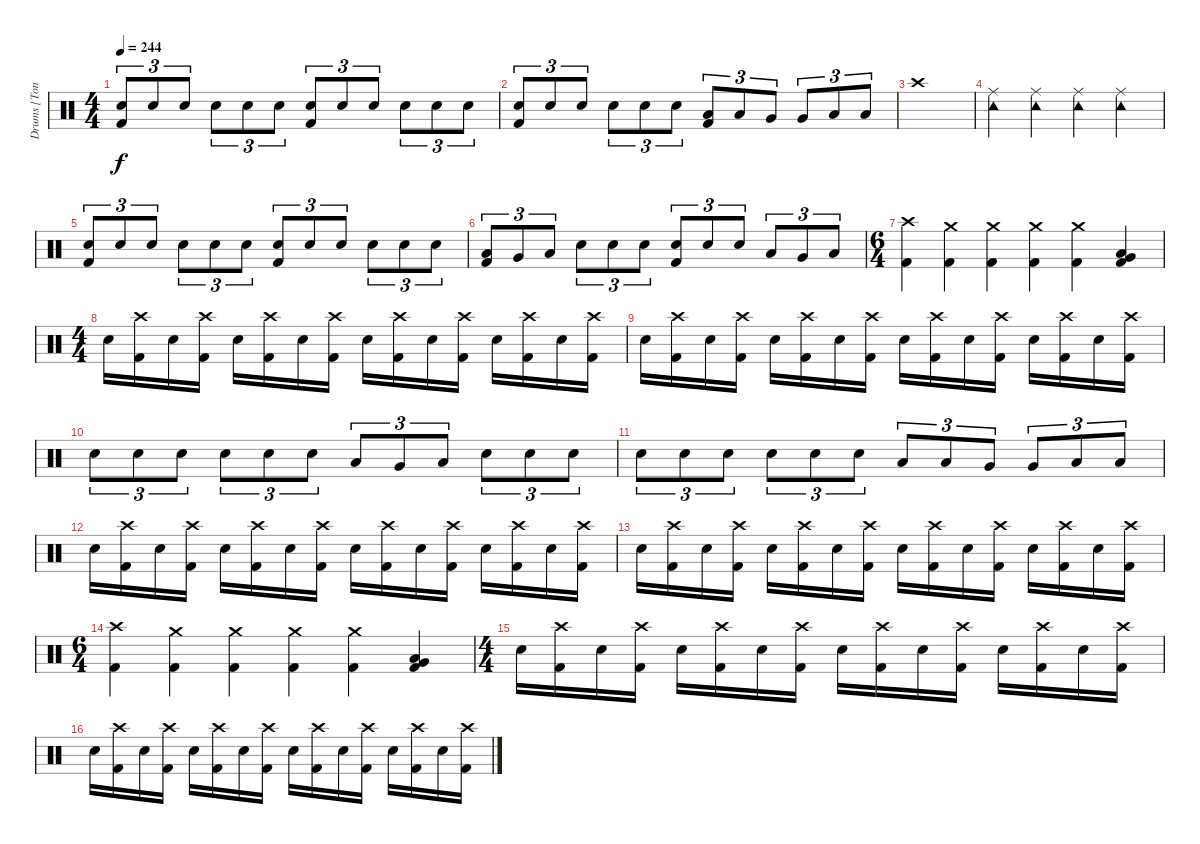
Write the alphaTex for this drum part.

\track ("Drums [Tony Laureano]" "Drums [Ton") {instrument percussion}
\staff {score}
\articulation defaults
\ts (4 4)
\tempo 244
\clef neutral
\ks c
("Electric Snare (hit)" "Kick (hit) 2").8{tu (3 2) dy f} "Electric Snare (hit)".8{tu (3 2)} "Electric Snare (hit)".8{tu (3 2)} "Electric Snare (hit)".8{tu (3 2)} "Electric Snare (hit)".8{tu (3 2)} "Electric Snare (hit)".8{tu (3 2)} ("Electric Snare (hit)" "Kick (hit) 2").8{tu (3 2)} "Electric Snare (hit)".8{tu (3 2)} "Electric Snare (hit)".8{tu (3 2)} "Electric Snare (hit)".8{tu (3 2)} "Electric Snare (hit)".8{tu (3 2)} "Electric Snare (hit)".8{tu (3 2)} |
("Electric Snare (hit)" "Kick (hit) 2").8{tu (3 2)} "Electric Snare (hit)".8{tu (3 2)} "Electric Snare (hit)".8{tu (3 2)} "Electric Snare (hit)".8{tu (3 2)} "Electric Snare (hit)".8{tu (3 2)} "Electric Snare (hit)".8{tu (3 2)} ("Low Tom (hit)" "Kick (hit) 2").8{tu (3 2)} "Low Tom (hit)".8{tu (3 2)} "Very Low Tom (hit)".8{tu (3 2)} "Very Low Tom (hit)".8{tu (3 2)} "Low Floor Tom (hit)".8{tu (3 2)} "Low Floor Tom (hit)".8{tu (3 2)} |
"Crash high (hit)".1 |
("Tambourine (hit)" "Ride (middle)").4 ("Tambourine (hit)" "Ride (middle)").4 ("Tambourine (hit)" "Ride (middle)").4 ("Tambourine (hit)" "Ride (middle)").4 |
("Electric Snare (hit)" "Kick (hit) 2").8{tu (3 2)} "Electric Snare (hit)".8{tu (3 2)} "Electric Snare (hit)".8{tu (3 2)} "Electric Snare (hit)".8{tu (3 2)} "Electric Snare (hit)".8{tu (3 2)} "Electric Snare (hit)".8{tu (3 2)} ("Electric Snare (hit)" "Kick (hit) 2").8{tu (3 2)} "Electric Snare (hit)".8{tu (3 2)} "Electric Snare (hit)".8{tu (3 2)} "Electric Snare (hit)".8{tu (3 2)} "Electric Snare (hit)".8{tu (3 2)} "Electric Snare (hit)".8{tu (3 2)} |
("Low Tom (hit)" "Kick (hit) 2").8{tu (3 2)} "Very Low Tom (hit)".8{tu (3 2)} "Low Floor Tom (hit)".8{tu (3 2)} "Electric Snare (hit)".8{tu (3 2)} "Electric Snare (hit)".8{tu (3 2)} "Electric Snare (hit)".8{tu (3 2)} ("Electric Snare (hit)" "Kick (hit) 2").8{tu (3 2)} "Electric Snare (hit)".8{tu (3 2)} "Electric Snare (hit)".8{tu (3 2)} "Low Tom (hit)".8{tu (3 2)} "Very Low Tom (hit)".8{tu (3 2)} "Low Floor Tom (hit)".8{tu (3 2)} |
\ts (6 4)
("Crash high (hit)" "Kick (hit) 2").4 ("Crash medium (hit)" "Kick (hit) 2").4 ("Crash medium (hit)" "Kick (hit) 2").4 ("Crash medium (hit)" "Kick (hit) 2").4 ("Crash medium (hit)" "Kick (hit) 2").4 ("Very Low Tom (hit)" "Low Floor Tom (hit)" "Kick (hit) 2").4 |
\ts (4 4)
"Electric Snare (hit)".16 ("Crash high (hit)" "Kick (hit) 2").16 "Electric Snare (hit)".16 ("Crash high (hit)" "Kick (hit) 2").16 "Electric Snare (hit)".16 ("Crash high (hit)" "Kick (hit) 2").16 "Electric Snare (hit)".16 ("Crash high (hit)" "Kick (hit) 2").16 "Electric Snare (hit)".16 ("Crash high (hit)" "Kick (hit) 2").16 "Electric Snare (hit)".16 ("Crash high (hit)" "Kick (hit) 2").16 "Electric Snare (hit)".16 ("Crash high (hit)" "Kick (hit) 2").16 "Electric Snare (hit)".16 ("Crash high (hit)" "Kick (hit) 2").16 |
"Electric Snare (hit)".16 ("Crash high (hit)" "Kick (hit) 2").16 "Electric Snare (hit)".16 ("Crash high (hit)" "Kick (hit) 2").16 "Electric Snare (hit)".16 ("Crash high (hit)" "Kick (hit) 2").16 "Electric Snare (hit)".16 ("Crash high (hit)" "Kick (hit) 2").16 "Electric Snare (hit)".16 ("Crash high (hit)" "Kick (hit) 2").16 "Electric Snare (hit)".16 ("Crash high (hit)" "Kick (hit) 2").16 "Electric Snare (hit)".16 ("Crash high (hit)" "Kick (hit) 2").16 "Electric Snare (hit)".16 ("Crash high (hit)" "Kick (hit) 2").16 |
"Electric Snare (hit)".8{tu (3 2)} "Electric Snare (hit)".8{tu (3 2)} "Electric Snare (hit)".8{tu (3 2)} "Electric Snare (hit)".8{tu (3 2)} "Electric Snare (hit)".8{tu (3 2)} "Electric Snare (hit)".8{tu (3 2)} "Low Tom (hit)".8{tu (3 2)} "Very Low Tom (hit)".8{tu (3 2)} "Low Floor Tom (hit)".8{tu (3 2)} "Electric Snare (hit)".8{tu (3 2)} "Electric Snare (hit)".8{tu (3 2)} "Electric Snare (hit)".8{tu (3 2)} |
"Electric Snare (hit)".8{tu (3 2)} "Electric Snare (hit)".8{tu (3 2)} "Electric Snare (hit)".8{tu (3 2)} "Electric Snare (hit)".8{tu (3 2)} "Electric Snare (hit)".8{tu (3 2)} "Electric Snare (hit)".8{tu (3 2)} "Low Tom (hit)".8{tu (3 2)} "Low Tom (hit)".8{tu (3 2)} "Very Low Tom (hit)".8{tu (3 2)} "Very Low Tom (hit)".8{tu (3 2)} "Low Floor Tom (hit)".8{tu (3 2)} "Low Floor Tom (hit)".8{tu (3 2)} |
"Electric Snare (hit)".16 ("Crash high (hit)" "Kick (hit) 2").16 "Electric Snare (hit)".16 ("Crash high (hit)" "Kick (hit) 2").16 "Electric Snare (hit)".16 ("Crash high (hit)" "Kick (hit) 2").16 "Electric Snare (hit)".16 ("Crash high (hit)" "Kick (hit) 2").16 "Electric Snare (hit)".16 ("Crash high (hit)" "Kick (hit) 2").16 "Electric Snare (hit)".16 ("Crash high (hit)" "Kick (hit) 2").16 "Electric Snare (hit)".16 ("Crash high (hit)" "Kick (hit) 2").16 "Electric Snare (hit)".16 ("Crash high (hit)" "Kick (hit) 2").16 |
"Electric Snare (hit)".16 ("Crash high (hit)" "Kick (hit) 2").16 "Electric Snare (hit)".16 ("Crash high (hit)" "Kick (hit) 2").16 "Electric Snare (hit)".16 ("Crash high (hit)" "Kick (hit) 2").16 "Electric Snare (hit)".16 ("Crash high (hit)" "Kick (hit) 2").16 "Electric Snare (hit)".16 ("Crash high (hit)" "Kick (hit) 2").16 "Electric Snare (hit)".16 ("Crash high (hit)" "Kick (hit) 2").16 "Electric Snare (hit)".16 ("Crash high (hit)" "Kick (hit) 2").16 "Electric Snare (hit)".16 ("Crash high (hit)" "Kick (hit) 2").16 |
\ts (6 4)
("Crash high (hit)" "Kick (hit) 2").4 ("Crash medium (hit)" "Kick (hit) 2").4 ("Crash medium (hit)" "Kick (hit) 2").4 ("Crash medium (hit)" "Kick (hit) 2").4 ("Crash medium (hit)" "Kick (hit) 2").4 ("Very Low Tom (hit)" "Low Floor Tom (hit)" "Kick (hit) 2").4 |
\ts (4 4)
"Electric Snare (hit)".16 ("Crash high (hit)" "Kick (hit) 2").16 "Electric Snare (hit)".16 ("Crash high (hit)" "Kick (hit) 2").16 "Electric Snare (hit)".16 ("Crash high (hit)" "Kick (hit) 2").16 "Electric Snare (hit)".16 ("Crash high (hit)" "Kick (hit) 2").16 "Electric Snare (hit)".16 ("Crash high (hit)" "Kick (hit) 2").16 "Electric Snare (hit)".16 ("Crash high (hit)" "Kick (hit) 2").16 "Electric Snare (hit)".16 ("Crash high (hit)" "Kick (hit) 2").16 "Electric Snare (hit)".16 ("Crash high (hit)" "Kick (hit) 2").16 |
"Electric Snare (hit)".16 ("Crash high (hit)" "Kick (hit) 2").16 "Electric Snare (hit)".16 ("Crash high (hit)" "Kick (hit) 2").16 "Electric Snare (hit)".16 ("Crash high (hit)" "Kick (hit) 2").16 "Electric Snare (hit)".16 ("Crash high (hit)" "Kick (hit) 2").16 "Electric Snare (hit)".16 ("Crash high (hit)" "Kick (hit) 2").16 "Electric Snare (hit)".16 ("Crash high (hit)" "Kick (hit) 2").16 "Electric Snare (hit)".16 ("Crash high (hit)" "Kick (hit) 2").16 "Electric Snare (hit)".16 ("Crash high (hit)" "Kick (hit) 2").16
